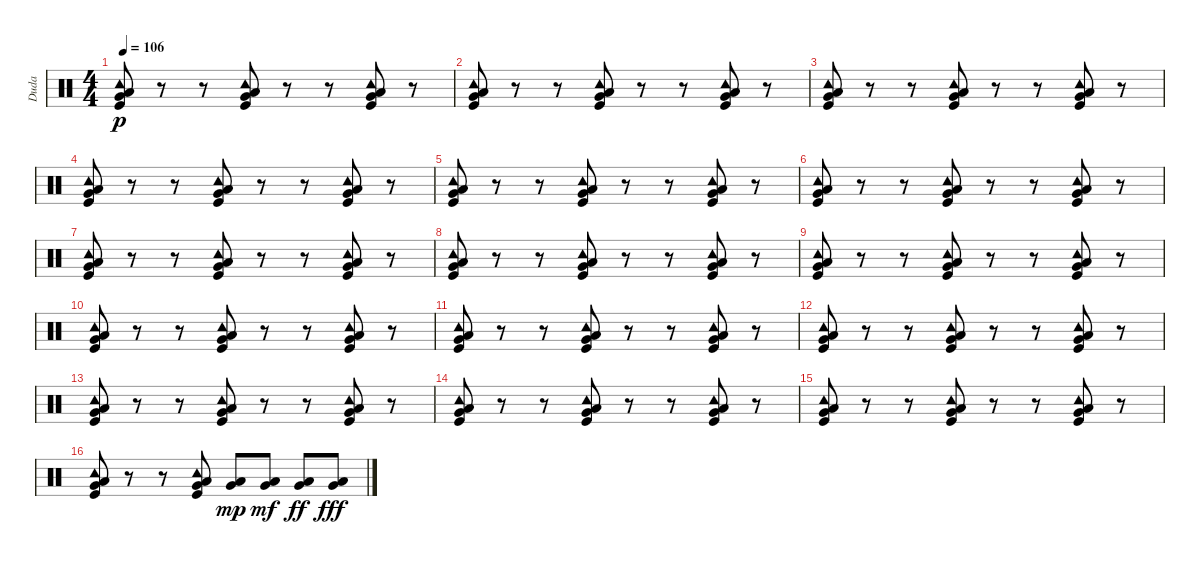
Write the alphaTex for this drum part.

\track ("Duda" "Duda") {instrument percussion}
\staff {score}
\articulation defaults
\ts (4 4)
\tempo 106
\clef neutral
\ks c
("Tambourine (hit)" "Low Floor Tom (hit)" "Very Low Tom (hit)" "Kick (hit)").8{dy p} r.8 r.8 ("Tambourine (hit)" "Low Floor Tom (hit)" "Very Low Tom (hit)" "Kick (hit)").8 r.8 r.8 ("Tambourine (hit)" "Low Floor Tom (hit)" "Very Low Tom (hit)" "Kick (hit)").8 r.8 |
("Tambourine (hit)" "Low Floor Tom (hit)" "Very Low Tom (hit)" "Kick (hit)").8 r.8 r.8 ("Tambourine (hit)" "Low Floor Tom (hit)" "Very Low Tom (hit)" "Kick (hit)").8 r.8 r.8 ("Tambourine (hit)" "Low Floor Tom (hit)" "Very Low Tom (hit)" "Kick (hit)").8 r.8 |
("Tambourine (hit)" "Low Floor Tom (hit)" "Very Low Tom (hit)" "Kick (hit)").8 r.8 r.8 ("Tambourine (hit)" "Low Floor Tom (hit)" "Very Low Tom (hit)" "Kick (hit)").8 r.8 r.8 ("Tambourine (hit)" "Low Floor Tom (hit)" "Very Low Tom (hit)" "Kick (hit)").8 r.8 |
("Tambourine (hit)" "Low Floor Tom (hit)" "Very Low Tom (hit)" "Kick (hit)").8 r.8 r.8 ("Tambourine (hit)" "Low Floor Tom (hit)" "Very Low Tom (hit)" "Kick (hit)").8 r.8 r.8 ("Tambourine (hit)" "Low Floor Tom (hit)" "Very Low Tom (hit)" "Kick (hit)").8 r.8 |
("Tambourine (hit)" "Low Floor Tom (hit)" "Very Low Tom (hit)" "Kick (hit)").8 r.8 r.8 ("Tambourine (hit)" "Low Floor Tom (hit)" "Very Low Tom (hit)" "Kick (hit)").8 r.8 r.8 ("Tambourine (hit)" "Low Floor Tom (hit)" "Very Low Tom (hit)" "Kick (hit)").8 r.8 |
("Tambourine (hit)" "Low Floor Tom (hit)" "Very Low Tom (hit)" "Kick (hit)").8 r.8 r.8 ("Tambourine (hit)" "Low Floor Tom (hit)" "Very Low Tom (hit)" "Kick (hit)").8 r.8 r.8 ("Tambourine (hit)" "Low Floor Tom (hit)" "Very Low Tom (hit)" "Kick (hit)").8 r.8 |
("Tambourine (hit)" "Low Floor Tom (hit)" "Very Low Tom (hit)" "Kick (hit)").8 r.8 r.8 ("Tambourine (hit)" "Low Floor Tom (hit)" "Very Low Tom (hit)" "Kick (hit)").8 r.8 r.8 ("Tambourine (hit)" "Low Floor Tom (hit)" "Very Low Tom (hit)" "Kick (hit)").8 r.8 |
("Tambourine (hit)" "Low Floor Tom (hit)" "Very Low Tom (hit)" "Kick (hit)").8 r.8 r.8 ("Tambourine (hit)" "Low Floor Tom (hit)" "Very Low Tom (hit)" "Kick (hit)").8 r.8 r.8 ("Tambourine (hit)" "Low Floor Tom (hit)" "Very Low Tom (hit)" "Kick (hit)").8 r.8 |
("Tambourine (hit)" "Low Floor Tom (hit)" "Very Low Tom (hit)" "Kick (hit)").8 r.8 r.8 ("Tambourine (hit)" "Low Floor Tom (hit)" "Very Low Tom (hit)" "Kick (hit)").8 r.8 r.8 ("Tambourine (hit)" "Low Floor Tom (hit)" "Very Low Tom (hit)" "Kick (hit)").8 r.8 |
("Tambourine (hit)" "Low Floor Tom (hit)" "Very Low Tom (hit)" "Kick (hit)").8 r.8 r.8 ("Tambourine (hit)" "Low Floor Tom (hit)" "Very Low Tom (hit)" "Kick (hit)").8 r.8 r.8 ("Tambourine (hit)" "Low Floor Tom (hit)" "Very Low Tom (hit)" "Kick (hit)").8 r.8 |
("Tambourine (hit)" "Low Floor Tom (hit)" "Very Low Tom (hit)" "Kick (hit)").8 r.8 r.8 ("Tambourine (hit)" "Low Floor Tom (hit)" "Very Low Tom (hit)" "Kick (hit)").8 r.8 r.8 ("Tambourine (hit)" "Low Floor Tom (hit)" "Very Low Tom (hit)" "Kick (hit)").8 r.8 |
("Tambourine (hit)" "Low Floor Tom (hit)" "Very Low Tom (hit)" "Kick (hit)").8 r.8 r.8 ("Tambourine (hit)" "Low Floor Tom (hit)" "Very Low Tom (hit)" "Kick (hit)").8 r.8 r.8 ("Tambourine (hit)" "Low Floor Tom (hit)" "Very Low Tom (hit)" "Kick (hit)").8 r.8 |
("Tambourine (hit)" "Low Floor Tom (hit)" "Very Low Tom (hit)" "Kick (hit)").8 r.8 r.8 ("Tambourine (hit)" "Low Floor Tom (hit)" "Very Low Tom (hit)" "Kick (hit)").8 r.8 r.8 ("Tambourine (hit)" "Low Floor Tom (hit)" "Very Low Tom (hit)" "Kick (hit)").8 r.8 |
("Tambourine (hit)" "Low Floor Tom (hit)" "Very Low Tom (hit)" "Kick (hit)").8 r.8 r.8 ("Tambourine (hit)" "Low Floor Tom (hit)" "Very Low Tom (hit)" "Kick (hit)").8 r.8 r.8 ("Tambourine (hit)" "Low Floor Tom (hit)" "Very Low Tom (hit)" "Kick (hit)").8 r.8 |
("Tambourine (hit)" "Low Floor Tom (hit)" "Very Low Tom (hit)" "Kick (hit)").8 r.8 r.8 ("Tambourine (hit)" "Low Floor Tom (hit)" "Very Low Tom (hit)" "Kick (hit)").8 r.8 r.8 ("Tambourine (hit)" "Low Floor Tom (hit)" "Very Low Tom (hit)" "Kick (hit)").8 r.8 |
("Tambourine (hit)" "Low Floor Tom (hit)" "Very Low Tom (hit)" "Kick (hit)").8 r.8 r.8 ("Tambourine (hit)" "Low Floor Tom (hit)" "Very Low Tom (hit)" "Kick (hit)").8 ("Low Floor Tom (hit)" "Very Low Tom (hit)").8{dy mp} ("Low Floor Tom (hit)" "Very Low Tom (hit)").8{dy mf} ("Low Floor Tom (hit)" "Very Low Tom (hit)").8{dy ff} ("Low Floor Tom (hit)" "Very Low Tom (hit)").8{dy fff}
